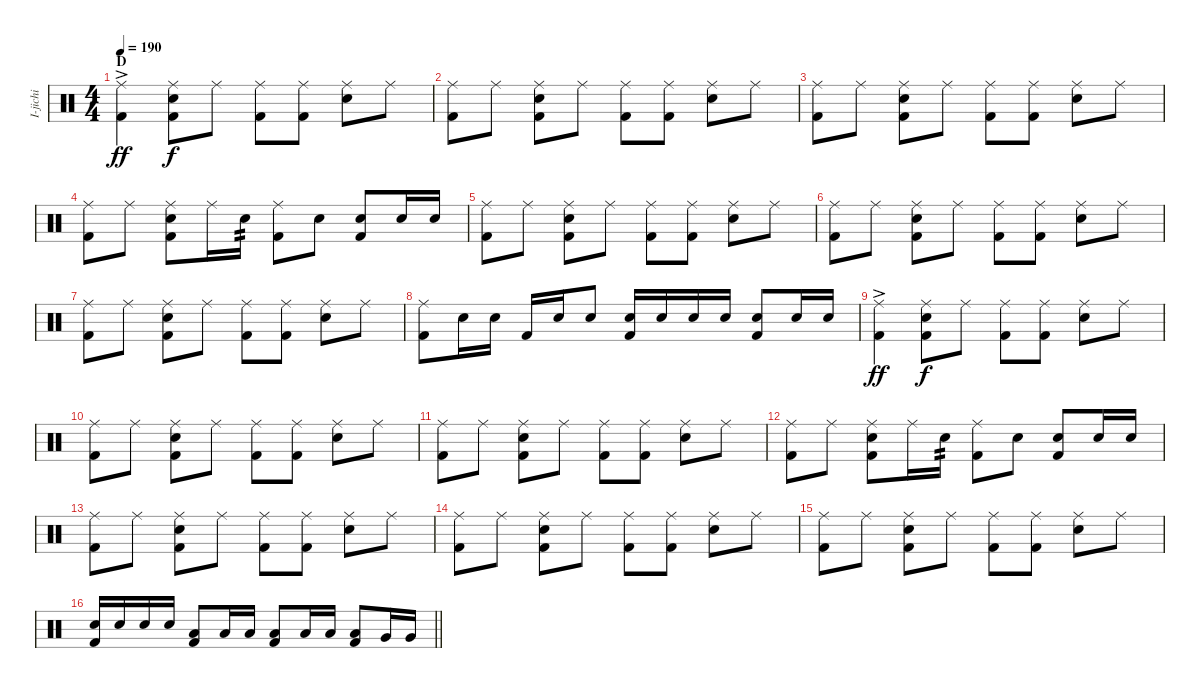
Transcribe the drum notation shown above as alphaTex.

\track ("I-jichi" "I-jichi") {instrument percussion}
\staff {score}
\articulation defaults
\ts (4 4)
\section ("" "D")
\tempo 190
\clef neutral
\ks c
("Ride (middle)"{ac} "Kick (hit) 2").4{dy ff} ("Ride (middle)" "Snare (hit) 2" "Kick (hit) 2").8{dy f} "Ride (middle)".8 ("Ride (middle)" "Kick (hit) 2").8 ("Ride (middle)" "Kick (hit) 2").8 ("Ride (middle)" "Snare (hit) 2").8 "Ride (middle)".8 |
("Ride (middle)" "Kick (hit) 2").8 "Ride (middle)".8 ("Ride (middle)" "Snare (hit) 2" "Kick (hit) 2").8 "Ride (middle)".8 ("Ride (middle)" "Kick (hit) 2").8 ("Ride (middle)" "Kick (hit) 2").8 ("Ride (middle)" "Snare (hit) 2").8 "Ride (middle)".8 |
("Ride (middle)" "Kick (hit) 2").8 "Ride (middle)".8 ("Ride (middle)" "Snare (hit) 2" "Kick (hit) 2").8 "Ride (middle)".8 ("Ride (middle)" "Kick (hit) 2").8 ("Ride (middle)" "Kick (hit) 2").8 ("Ride (middle)" "Snare (hit) 2").8 "Ride (middle)".8 |
("Ride (middle)" "Kick (hit) 2").8 "Ride (middle)".8 ("Ride (middle)" "Snare (hit) 2" "Kick (hit) 2").8 "Ride (middle)".16 "Snare (hit) 2".16{tp 2} ("Ride (middle)" "Kick (hit) 2").8 "Snare (hit) 2".8 ("Snare (hit) 2" "Kick (hit) 2").8 "Snare (hit) 2".16 "Snare (hit) 2".16 |
("Ride (middle)" "Kick (hit) 2").8 "Ride (middle)".8 ("Ride (middle)" "Snare (hit) 2" "Kick (hit) 2").8 "Ride (middle)".8 ("Ride (middle)" "Kick (hit) 2").8 ("Ride (middle)" "Kick (hit) 2").8 ("Ride (middle)" "Snare (hit) 2").8 "Ride (middle)".8 |
("Ride (middle)" "Kick (hit) 2").8 "Ride (middle)".8 ("Ride (middle)" "Snare (hit) 2" "Kick (hit) 2").8 "Ride (middle)".8 ("Ride (middle)" "Kick (hit) 2").8 ("Ride (middle)" "Kick (hit) 2").8 ("Ride (middle)" "Snare (hit) 2").8 "Ride (middle)".8 |
("Ride (middle)" "Kick (hit) 2").8 "Ride (middle)".8 ("Ride (middle)" "Snare (hit) 2" "Kick (hit) 2").8 "Ride (middle)".8 ("Ride (middle)" "Kick (hit) 2").8 ("Ride (middle)" "Kick (hit) 2").8 ("Ride (middle)" "Snare (hit) 2").8 "Ride (middle)".8 |
("Ride (middle)" "Kick (hit) 2").8 "Snare (hit) 2".16 "Snare (hit) 2".16 "Kick (hit) 2".16 "Snare (hit) 2".16 "Snare (hit) 2".8 ("Snare (hit) 2" "Kick (hit) 2").16 "Snare (hit) 2".16 "Snare (hit) 2".16 "Snare (hit) 2".16 ("Snare (hit) 2" "Kick (hit) 2").8 "Snare (hit) 2".16 "Snare (hit) 2".16 |
("Ride (middle)"{ac} "Kick (hit) 2").4{dy ff} ("Ride (middle)" "Snare (hit) 2" "Kick (hit) 2").8{dy f} "Ride (middle)".8 ("Ride (middle)" "Kick (hit) 2").8 ("Ride (middle)" "Kick (hit) 2").8 ("Ride (middle)" "Snare (hit) 2").8 "Ride (middle)".8 |
("Ride (middle)" "Kick (hit) 2").8 "Ride (middle)".8 ("Ride (middle)" "Snare (hit) 2" "Kick (hit) 2").8 "Ride (middle)".8 ("Ride (middle)" "Kick (hit) 2").8 ("Ride (middle)" "Kick (hit) 2").8 ("Ride (middle)" "Snare (hit) 2").8 "Ride (middle)".8 |
("Ride (middle)" "Kick (hit) 2").8 "Ride (middle)".8 ("Ride (middle)" "Snare (hit) 2" "Kick (hit) 2").8 "Ride (middle)".8 ("Ride (middle)" "Kick (hit) 2").8 ("Ride (middle)" "Kick (hit) 2").8 ("Ride (middle)" "Snare (hit) 2").8 "Ride (middle)".8 |
("Ride (middle)" "Kick (hit) 2").8 "Ride (middle)".8 ("Ride (middle)" "Snare (hit) 2" "Kick (hit) 2").8 "Ride (middle)".16 "Snare (hit) 2".16{tp 2} ("Ride (middle)" "Kick (hit) 2").8 "Snare (hit) 2".8 ("Snare (hit) 2" "Kick (hit) 2").8 "Snare (hit) 2".16 "Snare (hit) 2".16 |
("Ride (middle)" "Kick (hit) 2").8 "Ride (middle)".8 ("Ride (middle)" "Snare (hit) 2" "Kick (hit) 2").8 "Ride (middle)".8 ("Ride (middle)" "Kick (hit) 2").8 ("Ride (middle)" "Kick (hit) 2").8 ("Ride (middle)" "Snare (hit) 2").8 "Ride (middle)".8 |
("Ride (middle)" "Kick (hit) 2").8 "Ride (middle)".8 ("Ride (middle)" "Snare (hit) 2" "Kick (hit) 2").8 "Ride (middle)".8 ("Ride (middle)" "Kick (hit) 2").8 ("Ride (middle)" "Kick (hit) 2").8 ("Ride (middle)" "Snare (hit) 2").8 "Ride (middle)".8 |
("Ride (middle)" "Kick (hit) 2").8 "Ride (middle)".8 ("Ride (middle)" "Snare (hit) 2" "Kick (hit) 2").8 "Ride (middle)".8 ("Ride (middle)" "Kick (hit) 2").8 ("Ride (middle)" "Kick (hit) 2").8 ("Ride (middle)" "Snare (hit) 2").8 "Ride (middle)".8 |
\barLineRight lightlight
("Snare (hit) 2" "Kick (hit) 2").16 "Snare (hit) 2".16 "Snare (hit) 2".16 "Snare (hit) 2".16 ("Low Tom (hit)" "Kick (hit) 2").8 "Low Tom (hit)".16 "Low Tom (hit)".16 ("Low Tom (hit)" "Kick (hit) 2").8 "Low Tom (hit)".16 "Low Tom (hit)".16 ("Low Tom (hit)" "Kick (hit) 2").8 "Very Low Tom (hit)".16 "Very Low Tom (hit)".16
